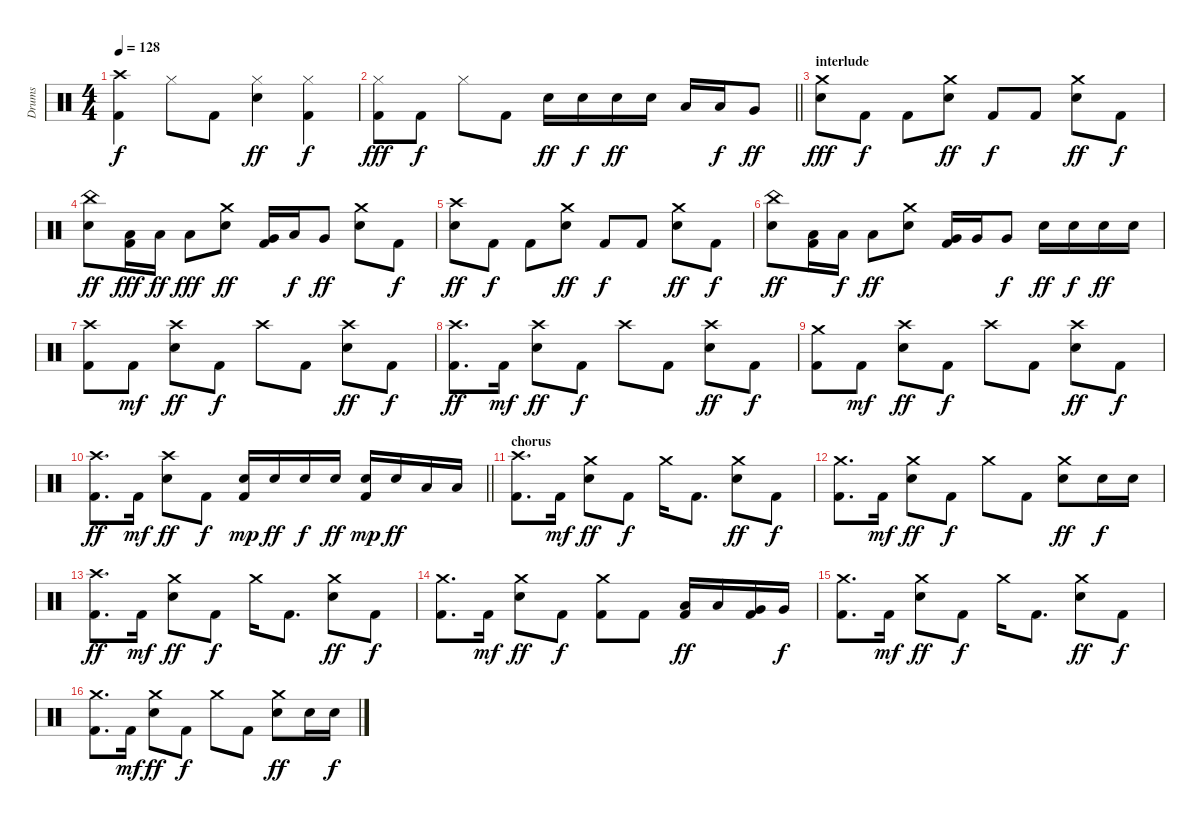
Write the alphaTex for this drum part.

\track ("Drums" "Drums") {instrument percussion}
\staff {score}
\articulation defaults
\ts (4 4)
\tempo 128
\clef neutral
\ks c
("Crash high (hit)" "Kick (hit) 2").4{dy f} "Hi-Hat (closed)".8 "Kick (hit) 2".8 ("Hi-Hat (closed)" "Electric Snare (hit)").4{dy ff} ("Hi-Hat (closed)" "Kick (hit) 2").4{dy f} |
\barLineRight lightlight
("Hi-Hat (closed)" "Kick (hit) 2").8{dy fff} "Kick (hit) 2".8{dy f} "Hi-Hat (closed)".8 "Kick (hit) 2".8 "Electric Snare (hit)".16{dy ff} "Electric Snare (hit)".16{dy f} "Electric Snare (hit)".16{dy ff} "Electric Snare (hit)".16 "Low Tom (hit)".16 "Low Tom (hit)".16{dy f} "Very Low Tom (hit)".8{dy ff} |
\section ("" "interlude")
("Crash medium (hit)" "Electric Snare (hit)").8{dy fff} "Kick (hit) 2".8{dy f} "Kick (hit) 2".8 ("Crash medium (hit)" "Electric Snare (hit)").8{dy ff} "Kick (hit) 2".8{dy f} "Kick (hit) 2".8 ("Crash medium (hit)" "Electric Snare (hit)").8{dy ff} "Kick (hit) 2".8{dy f} |
("China (hit)" "Electric Snare (hit)").8{dy ff} ("Low Tom (hit)" "Kick (hit) 2").16{dy fff} "Low Tom (hit)".16{dy ff} "Low Tom (hit)".8{dy fff} ("Crash medium (hit)" "Electric Snare (hit)").8{dy ff} ("Very Low Tom (hit)" "Kick (hit) 2").16 "Low Tom (hit)".16{dy f} "Very Low Tom (hit)".8{dy ff} ("Crash medium (hit)" "Electric Snare (hit)").8 "Kick (hit) 2".8{dy f} |
("Crash high (hit)" "Electric Snare (hit)").8{dy ff} "Kick (hit) 2".8{dy f} "Kick (hit) 2".8 ("Crash medium (hit)" "Electric Snare (hit)").8{dy ff} "Kick (hit) 2".8{dy f} "Kick (hit) 2".8 ("Crash medium (hit)" "Electric Snare (hit)").8{dy ff} "Kick (hit) 2".8{dy f} |
("China (hit)" "Electric Snare (hit)").8{dy ff} ("Low Tom (hit)" "Kick (hit) 2").16 "Low Tom (hit)".16{dy f} "Low Tom (hit)".8{dy ff} ("Crash medium (hit)" "Electric Snare (hit)").8 ("Very Low Tom (hit)" "Kick (hit) 2").16 "Very Low Tom (hit)".16 "Very Low Tom (hit)".8{dy f} "Electric Snare (hit)".16{dy ff} "Electric Snare (hit)".16{dy f} "Electric Snare (hit)".16{dy ff} "Electric Snare (hit)".16 |
("Crash high (hit)" "Kick (hit) 2").8 "Kick (hit) 2".8{dy mf} ("Crash high (hit)" "Electric Snare (hit)").8{dy ff} "Kick (hit) 2".8{dy f} "Crash high (hit)".8 "Kick (hit) 2".8 ("Crash high (hit)" "Electric Snare (hit)").8{dy ff} "Kick (hit) 2".8{dy f} |
("Crash high (hit)" "Kick (hit) 2").8{d dy ff} "Kick (hit) 2".16{dy mf} ("Crash high (hit)" "Electric Snare (hit)").8{dy ff} "Kick (hit) 2".8{dy f} "Crash high (hit)".8 "Kick (hit) 2".8 ("Crash high (hit)" "Electric Snare (hit)").8{dy ff} "Kick (hit) 2".8{dy f} |
("Crash medium (hit)" "Kick (hit) 2").8 "Kick (hit) 2".8{dy mf} ("Crash high (hit)" "Electric Snare (hit)").8{dy ff} "Kick (hit) 2".8{dy f} "Crash high (hit)".8 "Kick (hit) 2".8 ("Crash high (hit)" "Electric Snare (hit)").8{dy ff} "Kick (hit) 2".8{dy f} |
\barLineRight lightlight
("Crash high (hit)" "Kick (hit) 2").8{d dy ff} "Kick (hit) 2".16{dy mf} ("Crash high (hit)" "Electric Snare (hit)").8{dy ff} "Kick (hit) 2".8{dy f} ("Electric Snare (hit)" "Kick (hit) 2").16{dy mp} "Electric Snare (hit)".16{dy ff} "Electric Snare (hit)".16{dy f} "Electric Snare (hit)".16{dy ff} ("Electric Snare (hit)" "Kick (hit) 2").16{dy mp} "Electric Snare (hit)".16{dy ff} "Low Tom (hit)".16 "Low Tom (hit)".16 |
\section ("" "chorus")
("Crash high (hit)" "Kick (hit) 2").8{d} "Kick (hit) 2".16{dy mf} ("Crash medium (hit)" "Electric Snare (hit)").8{dy ff} "Kick (hit) 2".8{dy f} "Crash medium (hit)".16 "Kick (hit) 2".8{d} ("Crash medium (hit)" "Electric Snare (hit)").8{dy ff} "Kick (hit) 2".8{dy f} |
("Crash medium (hit)" "Kick (hit) 2").8{d} "Kick (hit) 2".16{dy mf} ("Crash medium (hit)" "Electric Snare (hit)").8{dy ff} "Kick (hit) 2".8{dy f} "Crash medium (hit)".8 "Kick (hit) 2".8 ("Crash medium (hit)" "Electric Snare (hit)").8{dy ff} "Electric Snare (hit)".16{dy f} "Electric Snare (hit)".16 |
("Crash high (hit)" "Kick (hit) 2").8{d dy ff} "Kick (hit) 2".16{dy mf} ("Crash medium (hit)" "Electric Snare (hit)").8{dy ff} "Kick (hit) 2".8{dy f} "Crash medium (hit)".16 "Kick (hit) 2".8{d} ("Crash medium (hit)" "Electric Snare (hit)").8{dy ff} "Kick (hit) 2".8{dy f} |
("Crash medium (hit)" "Kick (hit) 2").8{d} "Kick (hit) 2".16{dy mf} ("Crash medium (hit)" "Electric Snare (hit)").8{dy ff} "Kick (hit) 2".8{dy f} ("Crash medium (hit)" "Kick (hit) 2").8 "Kick (hit) 2".8 ("Low Tom (hit)" "Kick (hit) 2").16{dy ff} "Low Tom (hit)".16 ("Very Low Tom (hit)" "Kick (hit) 2").16 "Very Low Tom (hit)".16{dy f} |
("Crash medium (hit)" "Kick (hit) 2").8{d} "Kick (hit) 2".16{dy mf} ("Crash medium (hit)" "Electric Snare (hit)").8{dy ff} "Kick (hit) 2".8{dy f} "Crash medium (hit)".16 "Kick (hit) 2".8{d} ("Crash medium (hit)" "Electric Snare (hit)").8{dy ff} "Kick (hit) 2".8{dy f} |
("Crash medium (hit)" "Kick (hit) 2").8{d} "Kick (hit) 2".16{dy mf} ("Crash medium (hit)" "Electric Snare (hit)").8{dy ff} "Kick (hit) 2".8{dy f} "Crash medium (hit)".8 "Kick (hit) 2".8 ("Crash medium (hit)" "Electric Snare (hit)").8{dy ff} "Electric Snare (hit)".16 "Electric Snare (hit)".16{dy f}
